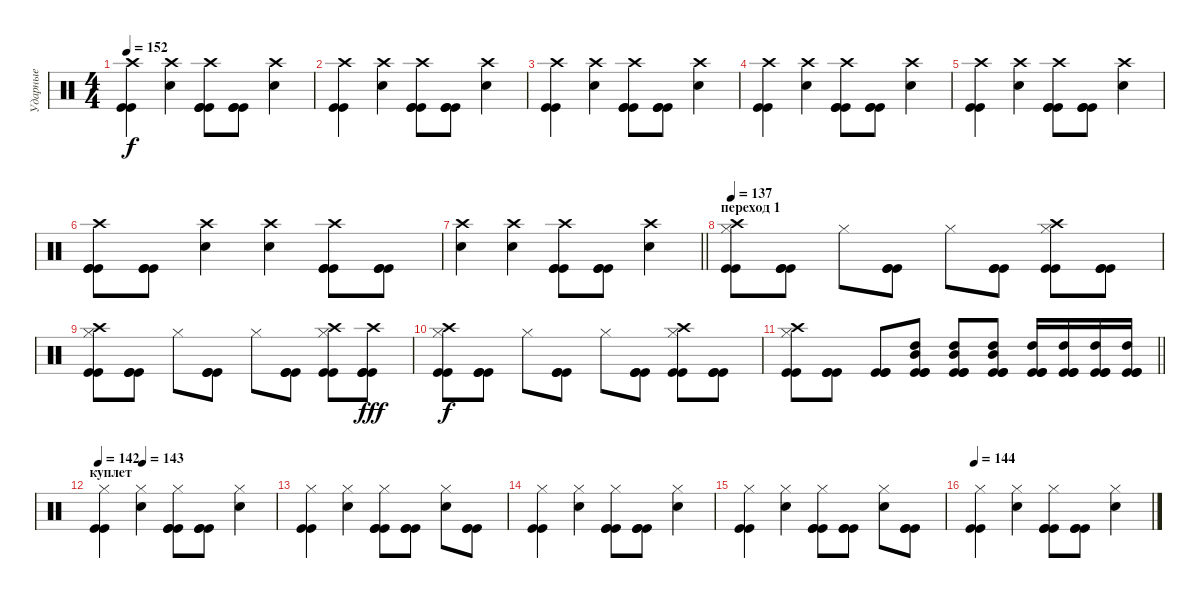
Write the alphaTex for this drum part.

\track ("Ударные" "Ударные") {instrument percussion}
\staff {score}
\articulation defaults
\ts (4 4)
\tempo 152
\clef neutral
\ks c
("Crash high (hit)" "Kick (hit)" "Kick (hit)").4{dy f} ("Snare (hit) 2" "Crash high (hit)").4 ("Kick (hit)" "Kick (hit)" "Kick (hit)" "Crash high (hit)").8 ("Kick (hit)" "Kick (hit)" "Kick (hit)").8 ("Snare (hit) 2" "Crash high (hit)").4 |
("Crash high (hit)" "Kick (hit)" "Kick (hit)").4 ("Snare (hit) 2" "Crash high (hit)").4 ("Kick (hit)" "Kick (hit)" "Kick (hit)" "Crash high (hit)").8 ("Kick (hit)" "Kick (hit)" "Kick (hit)").8 ("Snare (hit) 2" "Crash high (hit)").4 |
("Crash high (hit)" "Kick (hit)" "Kick (hit)").4 ("Snare (hit) 2" "Crash high (hit)").4 ("Kick (hit)" "Kick (hit)" "Kick (hit)" "Crash high (hit)").8 ("Kick (hit)" "Kick (hit)" "Kick (hit)").8 ("Snare (hit) 2" "Crash high (hit)").4 |
("Crash high (hit)" "Kick (hit)" "Kick (hit)").4 ("Snare (hit) 2" "Crash high (hit)").4 ("Kick (hit)" "Kick (hit)" "Kick (hit)" "Crash high (hit)").8 ("Kick (hit)" "Kick (hit)" "Kick (hit)").8 ("Snare (hit) 2" "Crash high (hit)").4 |
("Crash high (hit)" "Kick (hit)" "Kick (hit)").4 ("Snare (hit) 2" "Crash high (hit)").4 ("Kick (hit)" "Kick (hit)" "Kick (hit)" "Crash high (hit)").8 ("Kick (hit)" "Kick (hit)" "Kick (hit)").8 ("Snare (hit) 2" "Crash high (hit)").4 |
("Kick (hit)" "Kick (hit)" "Kick (hit)" "Crash high (hit)").8 ("Kick (hit)" "Kick (hit)" "Kick (hit)").8 ("Snare (hit) 2" "Crash high (hit)").4 ("Snare (hit) 2" "Crash high (hit)").4 ("Kick (hit)" "Kick (hit)" "Kick (hit)" "Crash high (hit)").8 ("Kick (hit)" "Kick (hit)" "Kick (hit)").8 |
\barLineRight lightlight
("Snare (hit) 2" "Crash high (hit)").4 ("Snare (hit) 2" "Crash high (hit)").4 ("Kick (hit)" "Kick (hit)" "Kick (hit)" "Crash high (hit)").8 ("Kick (hit)" "Kick (hit)" "Kick (hit)").8 ("Snare (hit) 2" "Crash high (hit)").4 |
\section ("" "переход 1")
\tempo 137
("Kick (hit)" "Kick (hit)" "Hi-Hat (closed)" "Crash high (hit)").8 ("Kick (hit)" "Kick (hit)" "Kick (hit)").8 "Hi-Hat (closed)".8 ("Kick (hit)" "Kick (hit)" "Kick (hit)").8 "Hi-Hat (closed)".8 ("Kick (hit)" "Kick (hit)" "Kick (hit)").8 ("Kick (hit)" "Kick (hit)" "Hi-Hat (closed)" "Crash high (hit)").8 ("Kick (hit)" "Kick (hit)" "Kick (hit)").8 |
("Kick (hit)" "Kick (hit)" "Hi-Hat (closed)" "Crash high (hit)").8 ("Kick (hit)" "Kick (hit)" "Kick (hit)").8 "Hi-Hat (closed)".8 ("Kick (hit)" "Kick (hit)" "Kick (hit)").8 "Hi-Hat (closed)".8 ("Kick (hit)" "Kick (hit)" "Kick (hit)").8 ("Kick (hit)" "Kick (hit)" "Hi-Hat (closed)" "Crash high (hit)").8 ("Kick (hit)" "Kick (hit)" "Kick (hit)" "Crash high (hit)").8{dy fff} |
("Kick (hit)" "Kick (hit)" "Hi-Hat (closed)" "Crash high (hit)").8{dy f} ("Kick (hit)" "Kick (hit)" "Kick (hit)").8 "Hi-Hat (closed)".8 ("Kick (hit)" "Kick (hit)" "Kick (hit)").8 "Hi-Hat (closed)".8 ("Kick (hit)" "Kick (hit)" "Kick (hit)").8 ("Kick (hit)" "Kick (hit)" "Hi-Hat (closed)" "Crash high (hit)").8 ("Kick (hit)" "Kick (hit)" "Kick (hit)").8 |
\barLineRight lightlight
("Kick (hit)" "Kick (hit)" "Hi-Hat (closed)" "Crash high (hit)").8 ("Kick (hit)" "Kick (hit)" "Kick (hit)").8 ("Kick (hit)" "Kick (hit)" "Kick (hit)").8 ("Kick (hit)" "Kick (hit)" "Kick (hit)" "High Tom (hit)" "Mid Tom (hit)").8 ("Kick (hit)" "Kick (hit)" "Kick (hit)" "High Tom (hit)" "Mid Tom (hit)").8 ("Kick (hit)" "Kick (hit)" "Kick (hit)" "High Tom (hit)" "Mid Tom (hit)").8 ("Kick (hit)" "Kick (hit)" "Kick (hit)" "High Tom (hit)").16 ("Kick (hit)" "Kick (hit)" "Kick (hit)" "High Tom (hit)").16 ("Kick (hit)" "Kick (hit)" "Kick (hit)" "High Tom (hit)").16 ("Kick (hit)" "Kick (hit)" "Kick (hit)" "High Tom (hit)").16 |
\section ("" "куплет")
\tempo 142
\tempo (143 0.25)
("Hi-Hat (closed)" "Kick (hit)" "Kick (hit)").4 ("Snare (hit) 2" "Hi-Hat (closed)").4 ("Kick (hit)" "Kick (hit)" "Kick (hit)" "Hi-Hat (closed)").8 ("Kick (hit)" "Kick (hit)" "Kick (hit)").8 ("Snare (hit) 2" "Hi-Hat (closed)").4 |
("Hi-Hat (closed)" "Kick (hit)" "Kick (hit)").4 ("Snare (hit) 2" "Hi-Hat (closed)").4 ("Kick (hit)" "Kick (hit)" "Kick (hit)" "Hi-Hat (closed)").8 ("Kick (hit)" "Kick (hit)" "Kick (hit)").8 ("Snare (hit) 2" "Hi-Hat (closed)").8 ("Kick (hit)" "Kick (hit)" "Kick (hit)").8 |
("Hi-Hat (closed)" "Kick (hit)" "Kick (hit)").4 ("Snare (hit) 2" "Hi-Hat (closed)").4 ("Kick (hit)" "Kick (hit)" "Kick (hit)" "Hi-Hat (closed)").8 ("Kick (hit)" "Kick (hit)" "Kick (hit)").8 ("Snare (hit) 2" "Hi-Hat (closed)").4 |
("Hi-Hat (closed)" "Kick (hit)" "Kick (hit)").4 ("Snare (hit) 2" "Hi-Hat (closed)").4 ("Kick (hit)" "Kick (hit)" "Kick (hit)" "Hi-Hat (closed)").8 ("Kick (hit)" "Kick (hit)" "Kick (hit)").8 ("Snare (hit) 2" "Hi-Hat (closed)").8 ("Kick (hit)" "Kick (hit)" "Kick (hit)").8 |
\tempo 144
("Hi-Hat (closed)" "Kick (hit)" "Kick (hit)").4 ("Snare (hit) 2" "Hi-Hat (closed)").4 ("Kick (hit)" "Kick (hit)" "Kick (hit)" "Hi-Hat (closed)").8 ("Kick (hit)" "Kick (hit)" "Kick (hit)").8 ("Snare (hit) 2" "Hi-Hat (closed)").4
